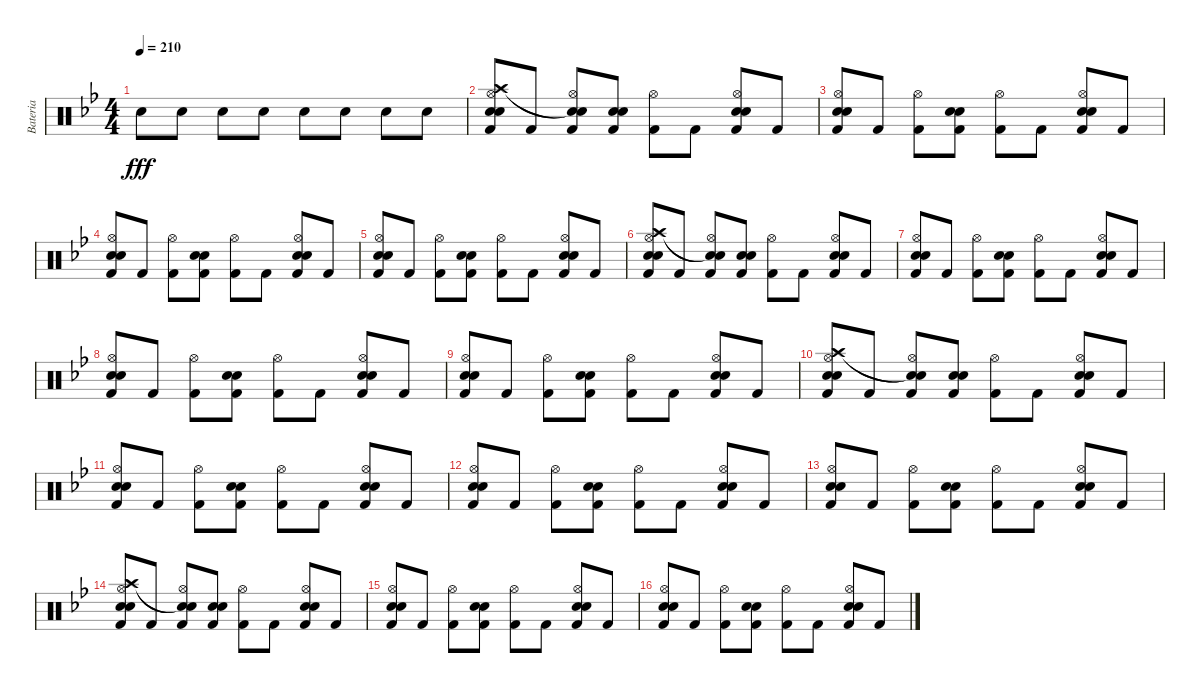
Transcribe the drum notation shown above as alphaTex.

\track ("Bateria" "Bateria") {instrument percussion}
\staff {score}
\articulation defaults
\ts (4 4)
\tempo 210
\clef neutral
\ks gminor "Electric Snare (hit)".8{dy fff} "Snare (hit) 2".8 "Snare (hit) 2".8 "Snare (hit) 2".8 "Snare (hit) 2".8 "Snare (hit) 2".8 "Snare (hit) 2".8 "Snare (hit) 2".8
|
("Hi-Hat (open)" "Crash high (hit)" "Splash (hit)" "Snare (hit) 2" "Electric Snare (hit)" "Kick (hit) 2").8 "Kick (hit) 2".8 ("Hi-Hat (open)" "Snare (hit)"{t} "Snare (hit)"{t} "Kick (hit) 2").8 ("Snare (hit) 2" "Electric Snare (hit)" "Kick (hit) 2").8 ("Hi-Hat (open)" "Kick (hit) 2").8 "Kick (hit) 2".8 ("Hi-Hat (open)" "Snare (hit) 2" "Electric Snare (hit)" "Kick (hit) 2").8 "Kick (hit) 2".8 |
("Hi-Hat (open)" "Snare (hit) 2" "Kick (hit) 2" "Electric Snare (hit)").8 "Kick (hit) 2".8 ("Hi-Hat (open)" "Kick (hit) 2").8 ("Snare (hit) 2" "Kick (hit) 2" "Electric Snare (hit)").8 ("Hi-Hat (open)" "Kick (hit) 2").8 "Kick (hit) 2".8 ("Hi-Hat (open)" "Snare (hit) 2" "Kick (hit) 2" "Electric Snare (hit)").8 "Kick (hit) 2".8 |
("Hi-Hat (open)" "Snare (hit) 2" "Kick (hit) 2" "Electric Snare (hit)").8 "Kick (hit) 2".8 ("Hi-Hat (open)" "Kick (hit) 2").8 ("Snare (hit) 2" "Kick (hit) 2" "Electric Snare (hit)").8 ("Hi-Hat (open)" "Kick (hit) 2").8 "Kick (hit) 2".8 ("Hi-Hat (open)" "Snare (hit) 2" "Kick (hit) 2" "Electric Snare (hit)").8 "Kick (hit) 2".8 |
("Hi-Hat (open)" "Snare (hit) 2" "Kick (hit) 2" "Electric Snare (hit)").8 "Kick (hit) 2".8 ("Hi-Hat (open)" "Kick (hit) 2").8 ("Snare (hit) 2" "Kick (hit) 2" "Electric Snare (hit)").8 ("Hi-Hat (open)" "Kick (hit) 2").8 "Kick (hit) 2".8 ("Hi-Hat (open)" "Snare (hit) 2" "Kick (hit) 2" "Electric Snare (hit)").8 "Kick (hit) 2".8 |
("Hi-Hat (open)" "Crash high (hit)" "Splash (hit)" "Snare (hit) 2" "Kick (hit) 2" "Electric Snare (hit)").8 "Kick (hit) 2".8 ("Hi-Hat (open)" "Snare (hit)"{t} "Snare (hit)"{t} "Kick (hit) 2").8 ("Snare (hit) 2" "Kick (hit) 2" "Electric Snare (hit)").8 ("Hi-Hat (open)" "Kick (hit) 2").8 "Kick (hit) 2".8 ("Hi-Hat (open)" "Snare (hit) 2" "Kick (hit) 2" "Electric Snare (hit)").8 "Kick (hit) 2".8 |
("Hi-Hat (open)" "Snare (hit) 2" "Kick (hit) 2" "Electric Snare (hit)").8 "Kick (hit) 2".8 ("Hi-Hat (open)" "Kick (hit) 2").8 ("Snare (hit) 2" "Kick (hit) 2" "Electric Snare (hit)").8 ("Hi-Hat (open)" "Kick (hit) 2").8 "Kick (hit) 2".8 ("Hi-Hat (open)" "Snare (hit) 2" "Kick (hit) 2" "Electric Snare (hit)").8 "Kick (hit) 2".8 |
("Hi-Hat (open)" "Snare (hit) 2" "Kick (hit) 2" "Electric Snare (hit)").8 "Kick (hit) 2".8 ("Hi-Hat (open)" "Kick (hit) 2").8 ("Snare (hit) 2" "Kick (hit) 2" "Electric Snare (hit)").8 ("Hi-Hat (open)" "Kick (hit) 2").8 "Kick (hit) 2".8 ("Hi-Hat (open)" "Snare (hit) 2" "Kick (hit) 2" "Electric Snare (hit)").8 "Kick (hit) 2".8 |
("Hi-Hat (open)" "Snare (hit) 2" "Kick (hit) 2" "Electric Snare (hit)").8 "Kick (hit) 2".8 ("Hi-Hat (open)" "Kick (hit) 2").8 ("Snare (hit) 2" "Kick (hit) 2" "Electric Snare (hit)").8 ("Hi-Hat (open)" "Kick (hit) 2").8 "Kick (hit) 2".8 ("Hi-Hat (open)" "Snare (hit) 2" "Kick (hit) 2" "Electric Snare (hit)").8 "Kick (hit) 2".8 |
("Hi-Hat (open)" "Crash high (hit)" "Splash (hit)" "Snare (hit) 2" "Kick (hit) 2" "Electric Snare (hit)").8 "Kick (hit) 2".8 ("Hi-Hat (open)" "Snare (hit)"{t} "Snare (hit)"{t} "Kick (hit) 2").8 ("Snare (hit) 2" "Kick (hit) 2" "Electric Snare (hit)").8 ("Hi-Hat (open)" "Kick (hit) 2").8 "Kick (hit) 2".8 ("Hi-Hat (open)" "Snare (hit) 2" "Kick (hit) 2" "Electric Snare (hit)").8 "Kick (hit) 2".8 |
("Hi-Hat (open)" "Snare (hit) 2" "Kick (hit) 2" "Electric Snare (hit)").8 "Kick (hit) 2".8 ("Hi-Hat (open)" "Kick (hit) 2").8 ("Snare (hit) 2" "Kick (hit) 2" "Electric Snare (hit)").8 ("Hi-Hat (open)" "Kick (hit) 2").8 "Kick (hit) 2".8 ("Hi-Hat (open)" "Snare (hit) 2" "Kick (hit) 2" "Electric Snare (hit)").8 "Kick (hit) 2".8 |
("Hi-Hat (open)" "Snare (hit) 2" "Kick (hit) 2" "Electric Snare (hit)").8 "Kick (hit) 2".8 ("Hi-Hat (open)" "Kick (hit) 2").8 ("Snare (hit) 2" "Kick (hit) 2" "Electric Snare (hit)").8 ("Hi-Hat (open)" "Kick (hit) 2").8 "Kick (hit) 2".8 ("Hi-Hat (open)" "Snare (hit) 2" "Kick (hit) 2" "Electric Snare (hit)").8 "Kick (hit) 2".8 |
("Hi-Hat (open)" "Snare (hit) 2" "Kick (hit) 2" "Electric Snare (hit)").8 "Kick (hit) 2".8 ("Hi-Hat (open)" "Kick (hit) 2").8 ("Snare (hit) 2" "Kick (hit) 2" "Electric Snare (hit)").8 ("Hi-Hat (open)" "Kick (hit) 2").8 "Kick (hit) 2".8 ("Hi-Hat (open)" "Snare (hit) 2" "Kick (hit) 2" "Electric Snare (hit)").8 "Kick (hit) 2".8 |
("Hi-Hat (open)" "Crash high (hit)" "Splash (hit)" "Snare (hit) 2" "Kick (hit) 2" "Electric Snare (hit)").8 "Kick (hit) 2".8 ("Hi-Hat (open)" "Snare (hit)"{t} "Snare (hit)"{t} "Kick (hit) 2").8 ("Snare (hit) 2" "Kick (hit) 2" "Electric Snare (hit)").8 ("Hi-Hat (open)" "Kick (hit) 2").8 "Kick (hit) 2".8 ("Hi-Hat (open)" "Snare (hit) 2" "Kick (hit) 2" "Electric Snare (hit)").8 "Kick (hit) 2".8 |
("Hi-Hat (open)" "Snare (hit) 2" "Kick (hit) 2" "Electric Snare (hit)").8 "Kick (hit) 2".8 ("Hi-Hat (open)" "Kick (hit) 2").8 ("Snare (hit) 2" "Kick (hit) 2" "Electric Snare (hit)").8 ("Hi-Hat (open)" "Kick (hit) 2").8 "Kick (hit) 2".8 ("Hi-Hat (open)" "Snare (hit) 2" "Kick (hit) 2" "Electric Snare (hit)").8 "Kick (hit) 2".8 |
("Hi-Hat (open)" "Snare (hit) 2" "Kick (hit) 2" "Electric Snare (hit)").8 "Kick (hit) 2".8 ("Hi-Hat (open)" "Kick (hit) 2").8 ("Snare (hit) 2" "Kick (hit) 2" "Electric Snare (hit)").8 ("Hi-Hat (open)" "Kick (hit) 2").8 "Kick (hit) 2".8 ("Hi-Hat (open)" "Snare (hit) 2" "Kick (hit) 2" "Electric Snare (hit)").8 "Kick (hit) 2".8
